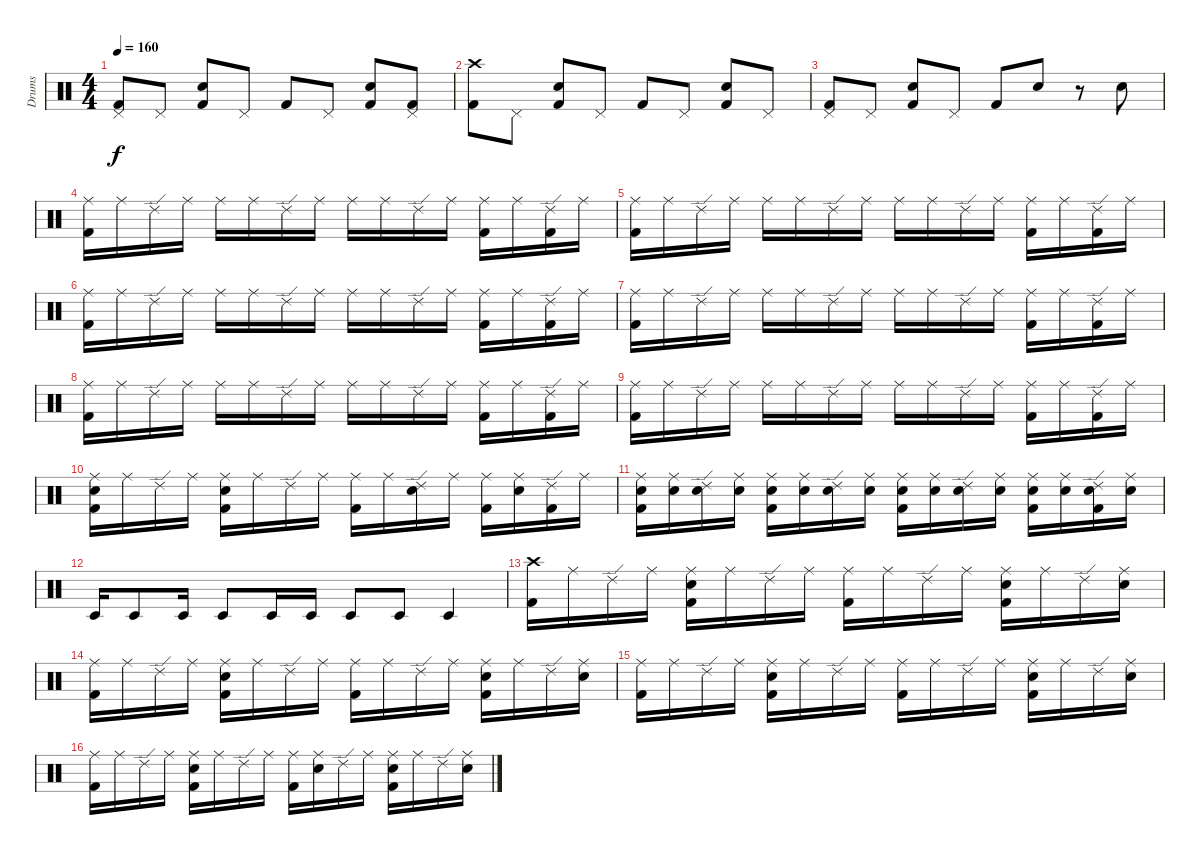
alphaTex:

\track ("Drums" "Drums") {instrument percussion}
\staff {score}
\articulation defaults
\ts (4 4)
\tempo 160
\clef neutral
\ks c
("Pedal Hi-Hat (hit)" "Kick (hit) 2").8{dy f} "Pedal Hi-Hat (hit)".8 ("Electric Snare (hit)" "Kick (hit) 2").8 "Pedal Hi-Hat (hit)".8 "Kick (hit) 2".8 "Pedal Hi-Hat (hit)".8 ("Electric Snare (hit)" "Kick (hit) 2").8 ("Pedal Hi-Hat (hit)" "Kick (hit) 2").8 |
("Crash high (hit)" "Kick (hit) 2").8 "Pedal Hi-Hat (hit)".8 ("Electric Snare (hit)" "Kick (hit) 2").8 "Pedal Hi-Hat (hit)".8 "Kick (hit) 2".8 "Pedal Hi-Hat (hit)".8 ("Electric Snare (hit)" "Kick (hit) 2").8 "Pedal Hi-Hat (hit)".8 |
("Pedal Hi-Hat (hit)" "Kick (hit) 2").8 "Pedal Hi-Hat (hit)".8 ("Electric Snare (hit)" "Kick (hit) 2").8 "Pedal Hi-Hat (hit)".8 "Kick (hit) 2".8 "Electric Snare (hit)".8 r.8 "Electric Snare (hit)".8 |
("Ride (middle)" "Kick (hit) 2").16 "Ride (middle)".16 "Ride (edge) 2".16 "Ride (middle)".16 "Ride (middle)".16 "Ride (middle)".16 "Ride (edge) 2".16 "Ride (middle)".16 "Ride (middle)".16 "Ride (middle)".16 "Ride (edge) 2".16 "Ride (middle)".16 ("Ride (middle)" "Kick (hit) 2").16 "Ride (middle)".16 ("Ride (edge) 2" "Kick (hit) 2").16 "Ride (middle)".16 |
("Ride (middle)" "Kick (hit) 2").16 "Ride (middle)".16 "Ride (edge) 2".16 "Ride (middle)".16 "Ride (middle)".16 "Ride (middle)".16 "Ride (edge) 2".16 "Ride (middle)".16 "Ride (middle)".16 "Ride (middle)".16 "Ride (edge) 2".16 "Ride (middle)".16 ("Ride (middle)" "Kick (hit) 2").16 "Ride (middle)".16 ("Ride (edge) 2" "Kick (hit) 2").16 "Ride (middle)".16 |
("Ride (middle)" "Kick (hit) 2").16 "Ride (middle)".16 "Ride (edge) 2".16 "Ride (middle)".16 "Ride (middle)".16 "Ride (middle)".16 "Ride (edge) 2".16 "Ride (middle)".16 "Ride (middle)".16 "Ride (middle)".16 "Ride (edge) 2".16 "Ride (middle)".16 ("Ride (middle)" "Kick (hit) 2").16 "Ride (middle)".16 ("Ride (edge) 2" "Kick (hit) 2").16 "Ride (middle)".16 |
("Ride (middle)" "Kick (hit) 2").16 "Ride (middle)".16 "Ride (edge) 2".16 "Ride (middle)".16 "Ride (middle)".16 "Ride (middle)".16 "Ride (edge) 2".16 "Ride (middle)".16 "Ride (middle)".16 "Ride (middle)".16 "Ride (edge) 2".16 "Ride (middle)".16 ("Ride (middle)" "Kick (hit) 2").16 "Ride (middle)".16 ("Ride (edge) 2" "Kick (hit) 2").16 "Ride (middle)".16 |
("Ride (middle)" "Kick (hit) 2").16 "Ride (middle)".16 "Ride (edge) 2".16 "Ride (middle)".16 "Ride (middle)".16 "Ride (middle)".16 "Ride (edge) 2".16 "Ride (middle)".16 "Ride (middle)".16 "Ride (middle)".16 "Ride (edge) 2".16 "Ride (middle)".16 ("Ride (middle)" "Kick (hit) 2").16 "Ride (middle)".16 ("Ride (edge) 2" "Kick (hit) 2").16 "Ride (middle)".16 |
("Ride (middle)" "Kick (hit) 2").16 "Ride (middle)".16 "Ride (edge) 2".16 "Ride (middle)".16 "Ride (middle)".16 "Ride (middle)".16 "Ride (edge) 2".16 "Ride (middle)".16 "Ride (middle)".16 "Ride (middle)".16 "Ride (edge) 2".16 "Ride (middle)".16 ("Ride (middle)" "Kick (hit) 2").16 "Ride (middle)".16 ("Ride (edge) 2" "Kick (hit) 2").16 "Ride (middle)".16 |
("Ride (middle)" "Electric Snare (hit)" "Kick (hit) 2").16 "Ride (middle)".16 "Ride (edge) 2".16 "Ride (middle)".16 ("Ride (middle)" "Electric Snare (hit)" "Kick (hit) 2").16 "Ride (middle)".16 "Ride (edge) 2".16 "Ride (middle)".16 ("Ride (middle)" "Kick (hit) 2").16 "Ride (middle)".16 ("Ride (edge) 2" "Electric Snare (hit)").16 "Ride (middle)".16 ("Ride (middle)" "Kick (hit) 2").16 ("Ride (middle)" "Electric Snare (hit)").16 ("Ride (edge) 2" "Kick (hit) 2").16 "Ride (middle)".16 |
("Ride (middle)" "Electric Snare (hit)" "Kick (hit) 2").16 ("Ride (middle)" "Electric Snare (hit)").16 ("Ride (edge) 2" "Electric Snare (hit)").16 ("Ride (middle)" "Electric Snare (hit)").16 ("Ride (middle)" "Electric Snare (hit)" "Kick (hit) 2").16 ("Ride (middle)" "Electric Snare (hit)").16 ("Ride (edge) 2" "Electric Snare (hit)").16 ("Ride (middle)" "Electric Snare (hit)").16 ("Ride (middle)" "Electric Snare (hit)" "Kick (hit) 2").16 ("Ride (middle)" "Electric Snare (hit)").16 ("Ride (edge) 2" "Electric Snare (hit)").16 ("Ride (middle)" "Electric Snare (hit)").16 ("Ride (middle)" "Electric Snare (hit)" "Kick (hit) 2").16 ("Ride (middle)" "Electric Snare (hit)").16 ("Ride (edge) 2" "Electric Snare (hit)" "Kick (hit) 2").16 ("Ride (middle)" "Electric Snare (hit)").16 |
"Timbale low (hit)".16 "Timbale low (hit)".8 "Timbale low (hit)".16 "Timbale low (hit)".8 "Timbale low (hit)".16 "Timbale low (hit)".16 "Timbale low (hit)".8 "Timbale low (hit)".8 "Timbale low (hit)".4 |
("Crash high (hit)" "Kick (hit) 2").16 "Ride (middle)".16 "Ride (edge) 2".16 "Ride (middle)".16 ("Ride (middle)" "Electric Snare (hit)" "Kick (hit) 2").16 "Ride (middle)".16 "Ride (edge) 2".16 "Ride (middle)".16 ("Ride (middle)" "Kick (hit) 2").16 "Ride (middle)".16 "Ride (edge) 2".16 "Ride (middle)".16 ("Ride (middle)" "Electric Snare (hit)" "Kick (hit) 2").16 "Ride (middle)".16 "Ride (edge) 2".16 ("Ride (middle)" "Electric Snare (hit)").16 |
("Ride (middle)" "Kick (hit) 2").16 "Ride (middle)".16 "Ride (edge) 2".16 "Ride (middle)".16 ("Ride (middle)" "Electric Snare (hit)" "Kick (hit) 2").16 "Ride (middle)".16 "Ride (edge) 2".16 "Ride (middle)".16 ("Ride (middle)" "Kick (hit) 2").16 "Ride (middle)".16 "Ride (edge) 2".16 "Ride (middle)".16 ("Ride (middle)" "Electric Snare (hit)" "Kick (hit) 2").16 "Ride (middle)".16 "Ride (edge) 2".16 ("Ride (middle)" "Electric Snare (hit)").16 |
("Ride (middle)" "Kick (hit) 2").16 "Ride (middle)".16 "Ride (edge) 2".16 "Ride (middle)".16 ("Ride (middle)" "Electric Snare (hit)" "Kick (hit) 2").16 "Ride (middle)".16 "Ride (edge) 2".16 "Ride (middle)".16 ("Ride (middle)" "Kick (hit) 2").16 "Ride (middle)".16 "Ride (edge) 2".16 "Ride (middle)".16 ("Ride (middle)" "Electric Snare (hit)" "Kick (hit) 2").16 "Ride (middle)".16 "Ride (edge) 2".16 ("Ride (middle)" "Electric Snare (hit)").16 |
("Ride (middle)" "Kick (hit) 2").16 "Ride (middle)".16 "Ride (edge) 2".16 "Ride (middle)".16 ("Ride (middle)" "Electric Snare (hit)" "Kick (hit) 2").16 "Ride (middle)".16 "Ride (edge) 2".16 "Ride (middle)".16 ("Ride (middle)" "Kick (hit) 2").16 ("Ride (middle)" "Electric Snare (hit)").16 "Ride (edge) 2".16 "Ride (middle)".16 ("Ride (middle)" "Electric Snare (hit)" "Kick (hit) 2").16 "Ride (middle)".16 "Ride (edge) 2".16 ("Ride (middle)" "Electric Snare (hit)").16
